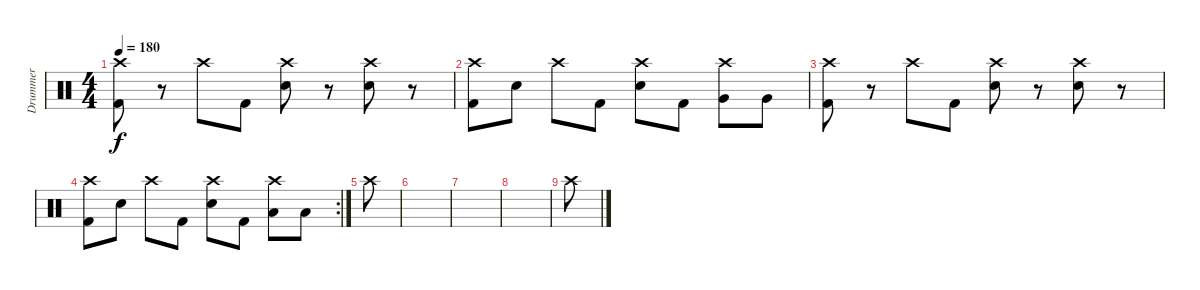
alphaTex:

\track ("Drummer" "Drummer") {instrument percussion}
\staff {score}
\articulation defaults
\ts (4 4)
\tempo 180
\clef neutral
\ks c
("Crash high (hit)" "Kick (hit) 2").8{dy f} r.8 "Crash high (hit)".8 "Kick (hit) 2".8 ("Crash high (hit)" "Electric Snare (hit)").8 r.8 ("Crash high (hit)" "Electric Snare (hit)").8 r.8 |
("Crash high (hit)" "Kick (hit) 2").8 "Electric Snare (hit)".8 "Crash high (hit)".8 "Kick (hit) 2".8 ("Crash high (hit)" "Electric Snare (hit)").8 "Kick (hit) 2".8 ("Crash high (hit)" "Very Low Tom (hit)").8 "Very Low Tom (hit)".8 |
("Crash high (hit)" "Kick (hit) 2").8 r.8 "Crash high (hit)".8 "Kick (hit) 2".8 ("Crash high (hit)" "Electric Snare (hit)").8 r.8 ("Crash high (hit)" "Electric Snare (hit)").8 r.8 |
\rc 2
("Crash high (hit)" "Kick (hit) 2").8 "Electric Snare (hit)".8 "Crash high (hit)".8 "Kick (hit) 2".8 ("Crash high (hit)" "Electric Snare (hit)").8 "Kick (hit) 2".8 ("Crash high (hit)" "Low Floor Tom (hit)").8 "Low Floor Tom (hit)".8 |
"Crash high (hit)".8 |
|
|
|
"Crash high (hit)".8
